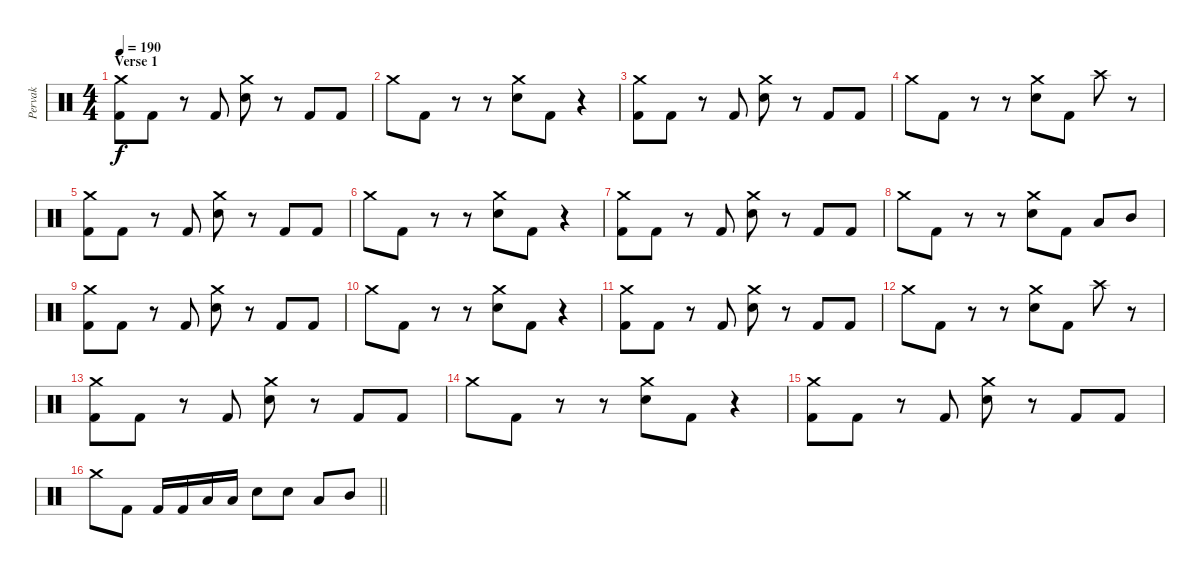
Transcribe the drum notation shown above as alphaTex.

\track ("Pervak" "Pervak") {instrument percussion}
\staff {score}
\articulation defaults
\ts (4 4)
\section ("" "Verse 1")
\tempo 190
\clef neutral
\ks c
("Crash medium (hit)" "Kick (hit) 2").8{dy f} "Kick (hit) 2".8 r.8 "Kick (hit) 2".8 ("Crash medium (hit)" "Electric Snare (hit)").8 r.8 "Kick (hit) 2".8 "Kick (hit) 2".8 |
"Crash medium (hit)".8 "Kick (hit) 2".8 r.8 r.8 ("Crash medium (hit)" "Electric Snare (hit)").8 "Kick (hit) 2".8 r.4 |
("Crash medium (hit)" "Kick (hit) 2").8 "Kick (hit) 2".8 r.8 "Kick (hit) 2".8 ("Crash medium (hit)" "Electric Snare (hit)").8 r.8 "Kick (hit) 2".8 "Kick (hit) 2".8 |
"Crash medium (hit)".8 "Kick (hit) 2".8 r.8 r.8 ("Crash medium (hit)" "Electric Snare (hit)").8 "Kick (hit) 2".8 "Crash high (hit)".8 r.8 |
("Crash medium (hit)" "Kick (hit) 2").8 "Kick (hit) 2".8 r.8 "Kick (hit) 2".8 ("Crash medium (hit)" "Electric Snare (hit)").8 r.8 "Kick (hit) 2".8 "Kick (hit) 2".8 |
"Crash medium (hit)".8 "Kick (hit) 2".8 r.8 r.8 ("Crash medium (hit)" "Electric Snare (hit)").8 "Kick (hit) 2".8 r.4 |
("Crash medium (hit)" "Kick (hit) 2").8 "Kick (hit) 2".8 r.8 "Kick (hit) 2".8 ("Crash medium (hit)" "Electric Snare (hit)").8 r.8 "Kick (hit) 2".8 "Kick (hit) 2".8 |
"Crash medium (hit)".8 "Kick (hit) 2".8 r.8 r.8 ("Crash medium (hit)" "Electric Snare (hit)").8 "Kick (hit) 2".8 "Low Tom (hit)".8 "Mid Tom (hit)".8 |
("Crash medium (hit)" "Kick (hit) 2").8 "Kick (hit) 2".8 r.8 "Kick (hit) 2".8 ("Crash medium (hit)" "Electric Snare (hit)").8 r.8 "Kick (hit) 2".8 "Kick (hit) 2".8 |
"Crash medium (hit)".8 "Kick (hit) 2".8 r.8 r.8 ("Crash medium (hit)" "Electric Snare (hit)").8 "Kick (hit) 2".8 r.4 |
("Crash medium (hit)" "Kick (hit) 2").8 "Kick (hit) 2".8 r.8 "Kick (hit) 2".8 ("Crash medium (hit)" "Electric Snare (hit)").8 r.8 "Kick (hit) 2".8 "Kick (hit) 2".8 |
"Crash medium (hit)".8 "Kick (hit) 2".8 r.8 r.8 ("Crash medium (hit)" "Electric Snare (hit)").8 "Kick (hit) 2".8 "Crash high (hit)".8 r.8 |
("Crash medium (hit)" "Kick (hit) 2").8 "Kick (hit) 2".8 r.8 "Kick (hit) 2".8 ("Crash medium (hit)" "Electric Snare (hit)").8 r.8 "Kick (hit) 2".8 "Kick (hit) 2".8 |
"Crash medium (hit)".8 "Kick (hit) 2".8 r.8 r.8 ("Crash medium (hit)" "Electric Snare (hit)").8 "Kick (hit) 2".8 r.4 |
("Crash medium (hit)" "Kick (hit) 2").8 "Kick (hit) 2".8 r.8 "Kick (hit) 2".8 ("Crash medium (hit)" "Electric Snare (hit)").8 r.8 "Kick (hit) 2".8 "Kick (hit) 2".8 |
\barLineRight lightlight "Crash medium (hit)".8 "Kick (hit) 2".8 "Kick (hit) 2".16 "Kick (hit) 2".16 "Low Tom (hit)".16 "Low Tom (hit)".16 "Electric Snare (hit)".8 "Electric Snare (hit)".8 "Low Tom (hit)".8 "Mid Tom (hit)".8
